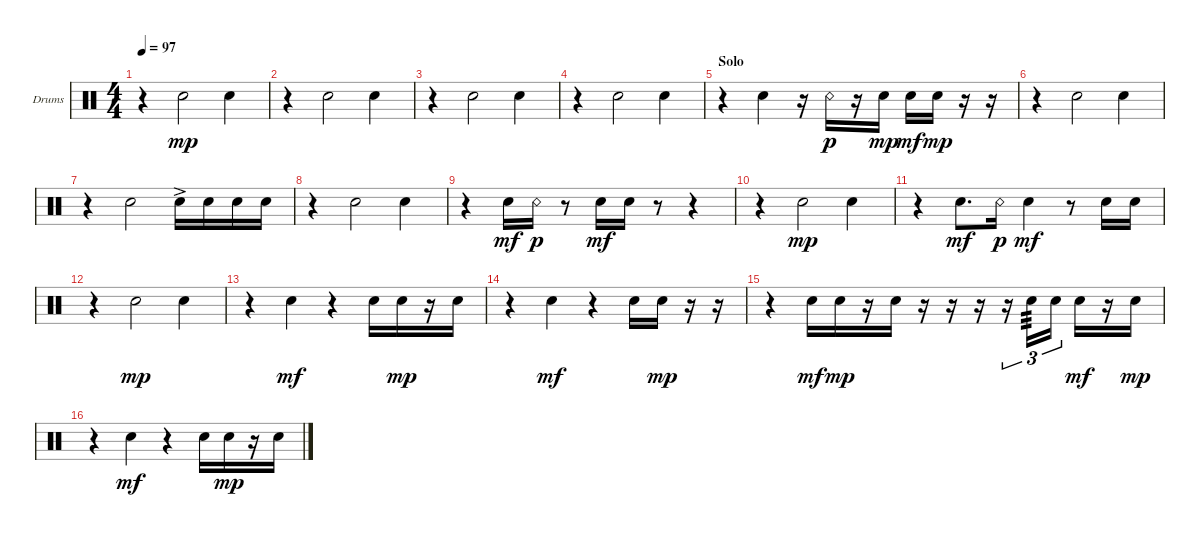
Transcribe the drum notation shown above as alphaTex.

\bracketExtendMode groupsimilarinstruments
\firstSystemTrackNameOrientation horizontal
\otherSystemsTrackNameOrientation horizontal
\track ("Snare" "Drums") {instrument percussion}
\staff {score}
\articulation defaults
\ts (4 4)
\tempo 97
\clef neutral
\ks c
r.4{dy mp} "Snare (hit) 2".2 "Snare (hit) 2".4 |
r.4 "Snare (hit) 2".2 "Snare (hit) 2".4 |
r.4 "Snare (hit) 2".2 "Snare (hit) 2".4 |
r.4 "Snare (hit) 2".2 "Snare (hit) 2".4 |
\section ("" "Solo")
r.4 "Snare (hit) 2".4 r.16 "Snare (rim shot)".16{dy p} r.16 "Snare (hit) 2".16{dy mp} "Snare (hit) 2".16{dy mf} "Snare (hit) 2".16{dy mp} r.16 r.16 |
r.4 "Snare (hit) 2".2 "Snare (hit) 2".4 |
r.4 "Snare (hit) 2".2 "Snare (hit) 2"{ac}.16 "Snare (hit) 2".16 "Snare (hit) 2".16 "Snare (hit) 2".16 |
r.4 "Snare (hit) 2".2 "Snare (hit) 2".4 |
r.4 "Snare (hit) 2".16{dy mf} "Snare (rim shot)".16{dy p} r.8 "Snare (hit) 2".16{dy mf} "Snare (hit) 2".16 r.8 r.4 |
r.4 "Snare (hit) 2".2{dy mp} "Snare (hit) 2".4 |
r.4 "Snare (hit) 2".8{d dy mf} "Snare (rim shot)".16{dy p} "Snare (hit) 2".4{dy mf} r.8 "Snare (hit) 2".16 "Snare (hit) 2".16 |
r.4 "Snare (hit) 2".2{dy mp} "Snare (hit) 2".4 |
r.4 "Snare (hit) 2".4{dy mf} r.4 "Snare (hit) 2".16 "Snare (hit) 2".16{dy mp} r.16 "Snare (hit) 2".16 |
r.4 "Snare (hit) 2".4{dy mf} r.4 "Snare (hit) 2".16 "Snare (hit) 2".16{dy mp} r.16 r.16 |
r.4 "Snare (hit) 2".16{dy mf} "Snare (hit) 2".16{dy mp} r.16 "Snare (hit) 2".16 r.16 r.16 r.16 r.16{tu (3 2)} "Snare (hit) 2".16{tu (3 2) tp 3} "Snare (hit) 2".16{tu (3 2)} "Snare (hit) 2".16{dy mf} r.16 "Snare (hit) 2".16{dy mp} |
r.4 "Snare (hit) 2".4{dy mf} r.4 "Snare (hit) 2".16 "Snare (hit) 2".16{dy mp} r.16 "Snare (hit) 2".16
